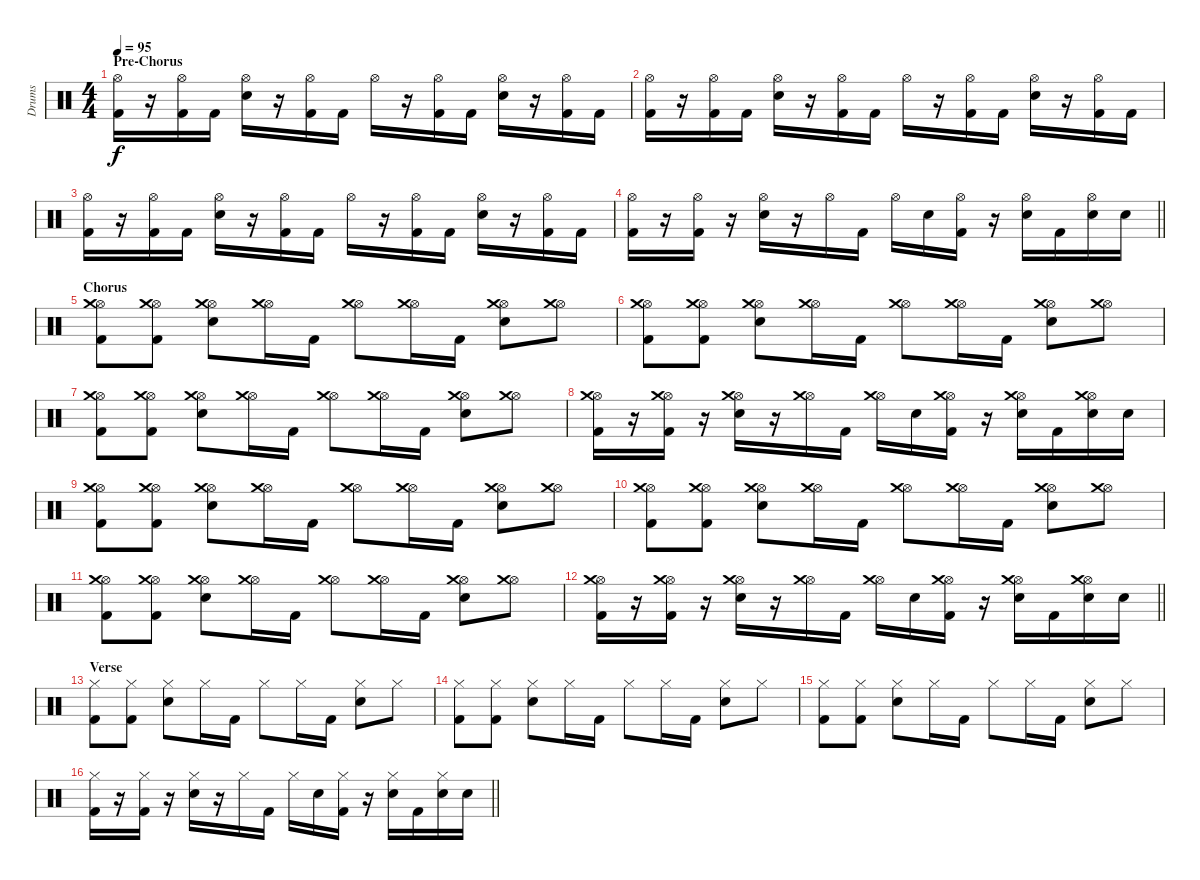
\track ("Drums" "Drums") {instrument percussion}
\staff {score}
\articulation defaults
\ts (4 4)
\section ("" "Pre-Chorus")
\tempo 95
\clef neutral
\ks c
("Hi-Hat (open)" "Kick (hit) 2").16{dy f} r.16 ("Hi-Hat (open)" "Kick (hit) 2").16 "Kick (hit) 2".16 ("Hi-Hat (open)" "Snare (hit) 2").16 r.16 ("Hi-Hat (open)" "Kick (hit) 2").16 "Kick (hit) 2".16 "Hi-Hat (open)".16 r.16 ("Hi-Hat (open)" "Kick (hit) 2").16 "Kick (hit) 2".16 ("Hi-Hat (open)" "Snare (hit) 2").16 r.16 ("Hi-Hat (open)" "Kick (hit) 2").16 "Kick (hit) 2".16 |
("Hi-Hat (open)" "Kick (hit) 2").16 r.16 ("Hi-Hat (open)" "Kick (hit) 2").16 "Kick (hit) 2".16 ("Hi-Hat (open)" "Snare (hit) 2").16 r.16 ("Hi-Hat (open)" "Kick (hit) 2").16 "Kick (hit) 2".16 "Hi-Hat (open)".16 r.16 ("Hi-Hat (open)" "Kick (hit) 2").16 "Kick (hit) 2".16 ("Hi-Hat (open)" "Snare (hit) 2").16 r.16 ("Hi-Hat (open)" "Kick (hit) 2").16 "Kick (hit) 2".16 |
("Hi-Hat (open)" "Kick (hit) 2").16 r.16 ("Hi-Hat (open)" "Kick (hit) 2").16 "Kick (hit) 2".16 ("Hi-Hat (open)" "Snare (hit) 2").16 r.16 ("Hi-Hat (open)" "Kick (hit) 2").16 "Kick (hit) 2".16 "Hi-Hat (open)".16 r.16 ("Hi-Hat (open)" "Kick (hit) 2").16 "Kick (hit) 2".16 ("Hi-Hat (open)" "Snare (hit) 2").16 r.16 ("Hi-Hat (open)" "Kick (hit) 2").16 "Kick (hit) 2".16 |
\barLineRight lightlight
("Hi-Hat (open)" "Kick (hit) 2").16 r.16 ("Hi-Hat (open)" "Kick (hit) 2").16 r.16 ("Hi-Hat (open)" "Snare (hit) 2").16 r.16 "Hi-Hat (open)".16 "Kick (hit) 2".16 "Hi-Hat (open)".16 "Snare (hit) 2".16 ("Hi-Hat (open)" "Kick (hit) 2").16 r.16 ("Hi-Hat (open)" "Snare (hit) 2").16 "Kick (hit) 2".16 ("Hi-Hat (open)" "Snare (hit) 2").16 "Snare (hit) 2".16 |
\section ("" "Chorus")
("Hi-Hat (open)" "Crash medium (hit)" "Kick (hit) 2").8 ("Hi-Hat (open)" "Crash medium (hit)" "Kick (hit) 2").8 ("Hi-Hat (open)" "Crash medium (hit)" "Snare (hit) 2").8 ("Hi-Hat (open)" "Crash medium (hit)").16 "Kick (hit) 2".16 ("Hi-Hat (open)" "Crash medium (hit)").8 ("Hi-Hat (open)" "Crash medium (hit)").16 "Kick (hit) 2".16 ("Hi-Hat (open)" "Crash medium (hit)" "Snare (hit) 2").8 ("Hi-Hat (open)" "Crash medium (hit)").8 |
("Hi-Hat (open)" "Crash medium (hit)" "Kick (hit) 2").8 ("Hi-Hat (open)" "Crash medium (hit)" "Kick (hit) 2").8 ("Hi-Hat (open)" "Crash medium (hit)" "Snare (hit) 2").8 ("Hi-Hat (open)" "Crash medium (hit)").16 "Kick (hit) 2".16 ("Hi-Hat (open)" "Crash medium (hit)").8 ("Hi-Hat (open)" "Crash medium (hit)").16 "Kick (hit) 2".16 ("Hi-Hat (open)" "Crash medium (hit)" "Snare (hit) 2").8 ("Hi-Hat (open)" "Crash medium (hit)").8 |
("Hi-Hat (open)" "Crash medium (hit)" "Kick (hit) 2").8 ("Hi-Hat (open)" "Crash medium (hit)" "Kick (hit) 2").8 ("Hi-Hat (open)" "Crash medium (hit)" "Snare (hit) 2").8 ("Hi-Hat (open)" "Crash medium (hit)").16 "Kick (hit) 2".16 ("Hi-Hat (open)" "Crash medium (hit)").8 ("Hi-Hat (open)" "Crash medium (hit)").16 "Kick (hit) 2".16 ("Hi-Hat (open)" "Crash medium (hit)" "Snare (hit) 2").8 ("Hi-Hat (open)" "Crash medium (hit)").8 |
("Hi-Hat (open)" "Crash medium (hit)" "Kick (hit) 2").16 r.16 ("Hi-Hat (open)" "Crash medium (hit)" "Kick (hit) 2").16 r.16 ("Hi-Hat (open)" "Crash medium (hit)" "Snare (hit) 2").16 r.16 ("Hi-Hat (open)" "Crash medium (hit)").16 "Kick (hit) 2".16 ("Hi-Hat (open)" "Crash medium (hit)").16 "Snare (hit) 2".16 ("Hi-Hat (open)" "Crash medium (hit)" "Kick (hit) 2").16 r.16 ("Hi-Hat (open)" "Crash medium (hit)" "Snare (hit) 2").16 "Kick (hit) 2".16 ("Hi-Hat (open)" "Crash medium (hit)" "Snare (hit) 2").16 "Snare (hit) 2".16 |
("Hi-Hat (open)" "Crash medium (hit)" "Kick (hit) 2").8 ("Hi-Hat (open)" "Crash medium (hit)" "Kick (hit) 2").8 ("Hi-Hat (open)" "Crash medium (hit)" "Snare (hit) 2").8 ("Hi-Hat (open)" "Crash medium (hit)").16 "Kick (hit) 2".16 ("Hi-Hat (open)" "Crash medium (hit)").8 ("Hi-Hat (open)" "Crash medium (hit)").16 "Kick (hit) 2".16 ("Hi-Hat (open)" "Crash medium (hit)" "Snare (hit) 2").8 ("Hi-Hat (open)" "Crash medium (hit)").8 |
("Hi-Hat (open)" "Crash medium (hit)" "Kick (hit) 2").8 ("Hi-Hat (open)" "Crash medium (hit)" "Kick (hit) 2").8 ("Hi-Hat (open)" "Crash medium (hit)" "Snare (hit) 2").8 ("Hi-Hat (open)" "Crash medium (hit)").16 "Kick (hit) 2".16 ("Hi-Hat (open)" "Crash medium (hit)").8 ("Hi-Hat (open)" "Crash medium (hit)").16 "Kick (hit) 2".16 ("Hi-Hat (open)" "Crash medium (hit)" "Snare (hit) 2").8 ("Hi-Hat (open)" "Crash medium (hit)").8 |
("Hi-Hat (open)" "Crash medium (hit)" "Kick (hit) 2").8 ("Hi-Hat (open)" "Crash medium (hit)" "Kick (hit) 2").8 ("Hi-Hat (open)" "Crash medium (hit)" "Snare (hit) 2").8 ("Hi-Hat (open)" "Crash medium (hit)").16 "Kick (hit) 2".16 ("Hi-Hat (open)" "Crash medium (hit)").8 ("Hi-Hat (open)" "Crash medium (hit)").16 "Kick (hit) 2".16 ("Hi-Hat (open)" "Crash medium (hit)" "Snare (hit) 2").8 ("Hi-Hat (open)" "Crash medium (hit)").8 |
\barLineRight lightlight
("Hi-Hat (open)" "Crash medium (hit)" "Kick (hit) 2").16 r.16 ("Hi-Hat (open)" "Crash medium (hit)" "Kick (hit) 2").16 r.16 ("Hi-Hat (open)" "Crash medium (hit)" "Snare (hit) 2").16 r.16 ("Hi-Hat (open)" "Crash medium (hit)").16 "Kick (hit) 2".16 ("Hi-Hat (open)" "Crash medium (hit)").16 "Snare (hit) 2".16 ("Hi-Hat (open)" "Crash medium (hit)" "Kick (hit) 2").16 r.16 ("Hi-Hat (open)" "Crash medium (hit)" "Snare (hit) 2").16 "Kick (hit) 2".16 ("Hi-Hat (open)" "Crash medium (hit)" "Snare (hit) 2").16 "Snare (hit) 2".16 |
\section ("" "Verse")
("Hi-Hat (closed)" "Kick (hit) 2").8 ("Hi-Hat (closed)" "Kick (hit) 2").8 ("Hi-Hat (closed)" "Snare (hit) 2").8 "Hi-Hat (closed)".16 "Kick (hit) 2".16 "Hi-Hat (closed)".8 "Hi-Hat (closed)".16 "Kick (hit) 2".16 ("Hi-Hat (closed)" "Snare (hit) 2").8 "Hi-Hat (closed)".8 |
("Hi-Hat (closed)" "Kick (hit) 2").8 ("Hi-Hat (closed)" "Kick (hit) 2").8 ("Hi-Hat (closed)" "Snare (hit) 2").8 "Hi-Hat (closed)".16 "Kick (hit) 2".16 "Hi-Hat (closed)".8 "Hi-Hat (closed)".16 "Kick (hit) 2".16 ("Hi-Hat (closed)" "Snare (hit) 2").8 "Hi-Hat (closed)".8 |
("Hi-Hat (closed)" "Kick (hit) 2").8 ("Hi-Hat (closed)" "Kick (hit) 2").8 ("Hi-Hat (closed)" "Snare (hit) 2").8 "Hi-Hat (closed)".16 "Kick (hit) 2".16 "Hi-Hat (closed)".8 "Hi-Hat (closed)".16 "Kick (hit) 2".16 ("Hi-Hat (closed)" "Snare (hit) 2").8 "Hi-Hat (closed)".8 |
\barLineRight lightlight
("Hi-Hat (closed)" "Kick (hit) 2").16 r.16 ("Hi-Hat (closed)" "Kick (hit) 2").16 r.16 ("Hi-Hat (closed)" "Snare (hit) 2").16 r.16 "Hi-Hat (closed)".16 "Kick (hit) 2".16 "Hi-Hat (closed)".16 "Snare (hit) 2".16 ("Hi-Hat (closed)" "Kick (hit) 2").16 r.16 ("Hi-Hat (closed)" "Snare (hit) 2").16 "Kick (hit) 2".16 ("Hi-Hat (closed)" "Snare (hit) 2").16 "Snare (hit) 2".16
